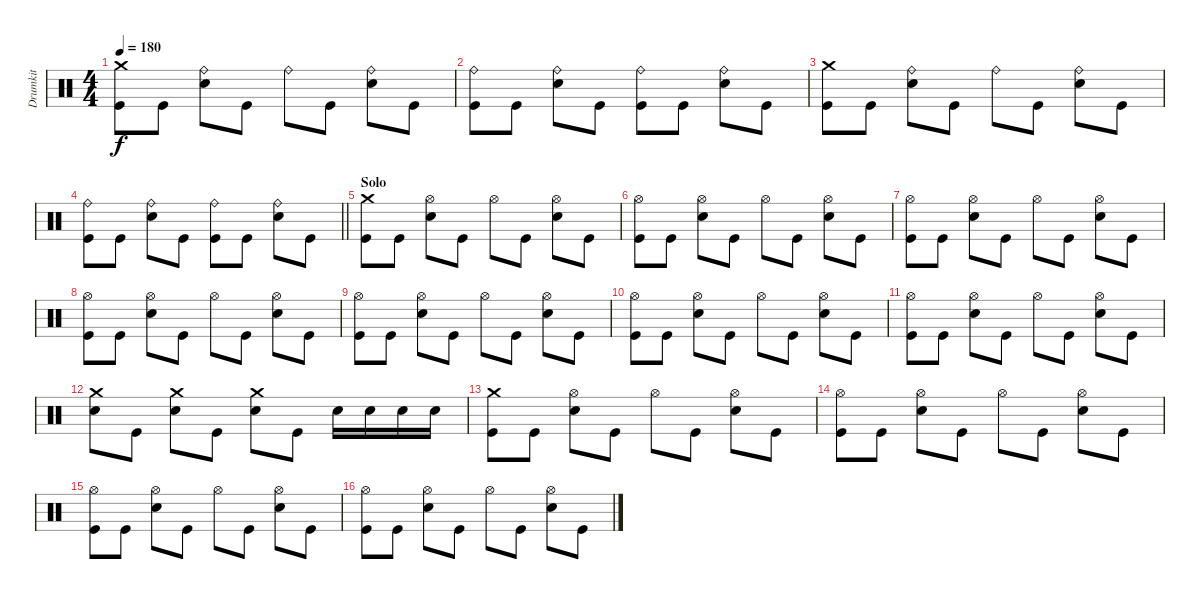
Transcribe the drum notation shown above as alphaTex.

\track ("Drumkit" "Drumkit") {instrument percussion}
\staff {score}
\articulation defaults
\ts (4 4)
\tempo 180
\clef neutral
\ks c
("Crash medium (hit)" "Kick (hit)").8{dy f} "Kick (hit)".8 ("Ride (bell)" "Snare (hit) 2").8 "Kick (hit)".8 "Ride (bell)".8 "Kick (hit)".8 ("Ride (bell)" "Snare (hit) 2").8 "Kick (hit)".8 |
("Ride (bell)" "Kick (hit)").8 "Kick (hit)".8 ("Ride (bell)" "Snare (hit) 2").8 "Kick (hit)".8 ("Ride (bell)" "Kick (hit)").8 "Kick (hit)".8 ("Ride (bell)" "Snare (hit) 2").8 "Kick (hit)".8 |
("Crash medium (hit)" "Kick (hit)").8 "Kick (hit)".8 ("Ride (bell)" "Snare (hit) 2").8 "Kick (hit)".8 "Ride (bell)".8 "Kick (hit)".8 ("Ride (bell)" "Snare (hit) 2").8 "Kick (hit)".8 |
\barLineRight lightlight
("Ride (bell)" "Kick (hit)").8 "Kick (hit)".8 ("Ride (bell)" "Snare (hit) 2").8 "Kick (hit)".8 ("Ride (bell)" "Kick (hit)").8 "Kick (hit)".8 ("Ride (bell)" "Snare (hit) 2").8 "Kick (hit)".8 |
\section ("" "Solo")
("Crash medium (hit)" "Kick (hit)").8 "Kick (hit)".8 ("Hi-Hat (open)" "Snare (hit) 2").8 "Kick (hit)".8 "Hi-Hat (open)".8 "Kick (hit)".8 ("Hi-Hat (open)" "Snare (hit) 2").8 "Kick (hit)".8 |
("Hi-Hat (open)" "Kick (hit)").8 "Kick (hit)".8 ("Hi-Hat (open)" "Snare (hit) 2").8 "Kick (hit)".8 "Hi-Hat (open)".8 "Kick (hit)".8 ("Hi-Hat (open)" "Snare (hit) 2").8 "Kick (hit)".8 |
("Hi-Hat (open)" "Kick (hit)").8 "Kick (hit)".8 ("Hi-Hat (open)" "Snare (hit) 2").8 "Kick (hit)".8 "Hi-Hat (open)".8 "Kick (hit)".8 ("Hi-Hat (open)" "Snare (hit) 2").8 "Kick (hit)".8 |
("Hi-Hat (open)" "Kick (hit)").8 "Kick (hit)".8 ("Hi-Hat (open)" "Snare (hit) 2").8 "Kick (hit)".8 "Hi-Hat (open)".8 "Kick (hit)".8 ("Hi-Hat (open)" "Snare (hit) 2").8 "Kick (hit)".8 |
("Hi-Hat (open)" "Kick (hit)").8 "Kick (hit)".8 ("Hi-Hat (open)" "Snare (hit) 2").8 "Kick (hit)".8 "Hi-Hat (open)".8 "Kick (hit)".8 ("Hi-Hat (open)" "Snare (hit) 2").8 "Kick (hit)".8 |
("Hi-Hat (open)" "Kick (hit)").8 "Kick (hit)".8 ("Hi-Hat (open)" "Snare (hit) 2").8 "Kick (hit)".8 "Hi-Hat (open)".8 "Kick (hit)".8 ("Hi-Hat (open)" "Snare (hit) 2").8 "Kick (hit)".8 |
("Hi-Hat (open)" "Kick (hit)").8 "Kick (hit)".8 ("Hi-Hat (open)" "Snare (hit) 2").8 "Kick (hit)".8 "Hi-Hat (open)".8 "Kick (hit)".8 ("Hi-Hat (open)" "Snare (hit) 2").8 "Kick (hit)".8 |
("Crash medium (hit)" "Snare (hit) 2").8 "Kick (hit)".8 ("Crash medium (hit)" "Snare (hit) 2").8 "Kick (hit)".8 ("Crash medium (hit)" "Snare (hit) 2").8 "Kick (hit)".8 "Snare (hit) 2".16 "Snare (hit) 2".16 "Snare (hit) 2".16 "Snare (hit) 2".16 |
("Crash medium (hit)" "Kick (hit)").8 "Kick (hit)".8 ("Hi-Hat (open)" "Snare (hit) 2").8 "Kick (hit)".8 "Hi-Hat (open)".8 "Kick (hit)".8 ("Hi-Hat (open)" "Snare (hit) 2").8 "Kick (hit)".8 |
("Hi-Hat (open)" "Kick (hit)").8 "Kick (hit)".8 ("Hi-Hat (open)" "Snare (hit) 2").8 "Kick (hit)".8 "Hi-Hat (open)".8 "Kick (hit)".8 ("Hi-Hat (open)" "Snare (hit) 2").8 "Kick (hit)".8 |
("Hi-Hat (open)" "Kick (hit)").8 "Kick (hit)".8 ("Hi-Hat (open)" "Snare (hit) 2").8 "Kick (hit)".8 "Hi-Hat (open)".8 "Kick (hit)".8 ("Hi-Hat (open)" "Snare (hit) 2").8 "Kick (hit)".8 |
("Hi-Hat (open)" "Kick (hit)").8 "Kick (hit)".8 ("Hi-Hat (open)" "Snare (hit) 2").8 "Kick (hit)".8 "Hi-Hat (open)".8 "Kick (hit)".8 ("Hi-Hat (open)" "Snare (hit) 2").8 "Kick (hit)".8
